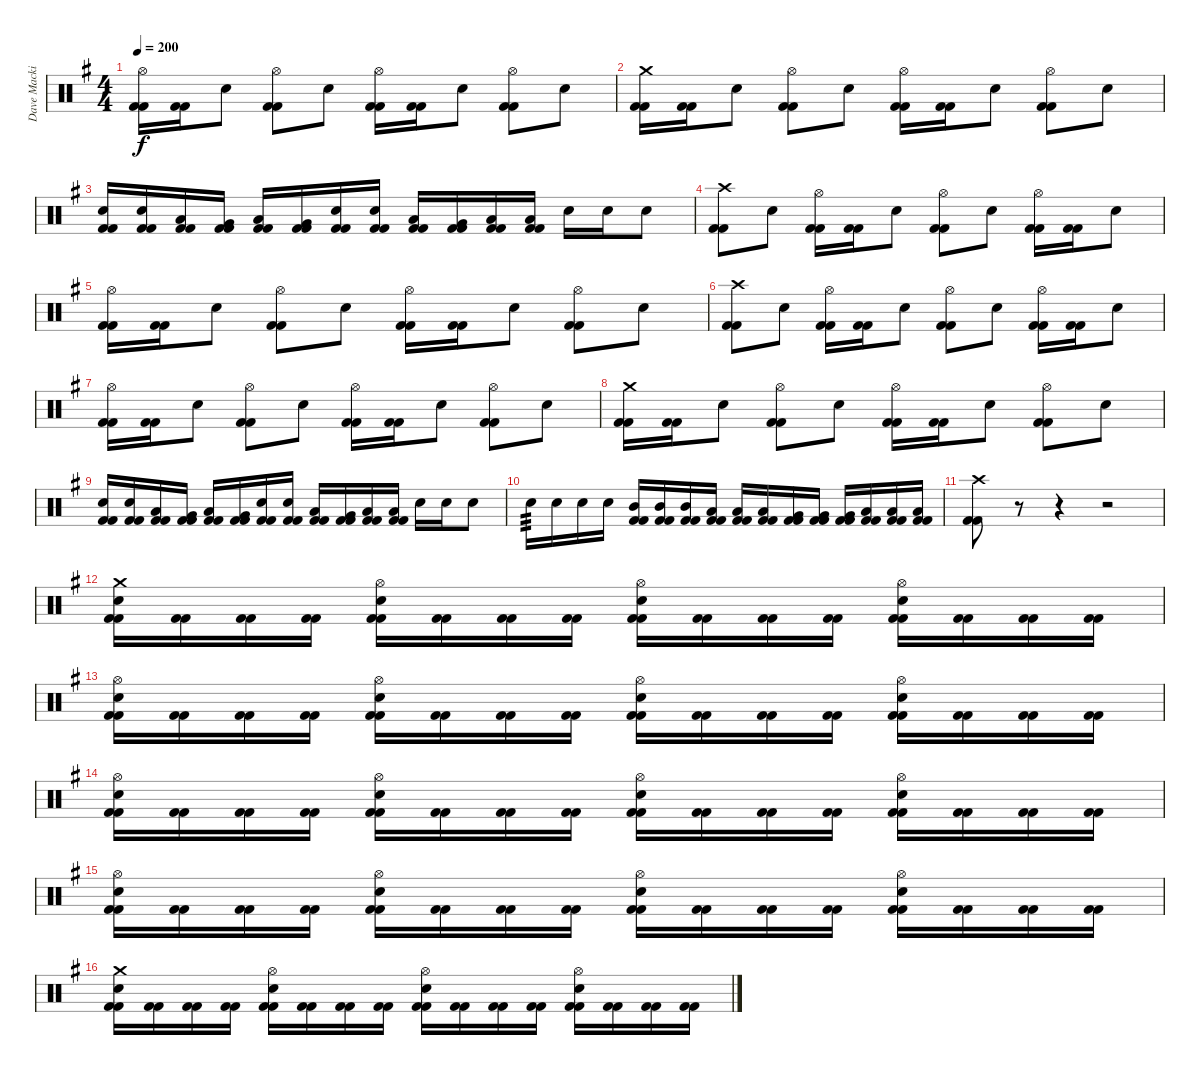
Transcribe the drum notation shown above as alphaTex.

\track ("Dave Mackintosh" "Dave Macki") {instrument percussion}
\staff {score}
\articulation defaults
\ts (4 4)
\tempo 200
\clef neutral
\ks g
("Hi-Hat (open)" "Kick (hit) 2" "Kick (hit) 2").16{dy f} ("Kick (hit) 2" "Kick (hit) 2").16 "Electric Snare (hit)".8 ("Hi-Hat (open)" "Kick (hit) 2" "Kick (hit) 2").8 "Electric Snare (hit)".8 ("Hi-Hat (open)" "Kick (hit) 2" "Kick (hit) 2").16 ("Kick (hit) 2" "Kick (hit) 2").16 "Electric Snare (hit)".8 ("Hi-Hat (open)" "Kick (hit) 2" "Kick (hit) 2").8 "Electric Snare (hit)".8 |
("Crash medium (hit)" "Kick (hit) 2" "Kick (hit) 2").16 ("Kick (hit) 2" "Kick (hit) 2").16 "Electric Snare (hit)".8 ("Hi-Hat (open)" "Kick (hit) 2" "Kick (hit) 2").8 "Electric Snare (hit)".8 ("Hi-Hat (open)" "Kick (hit) 2" "Kick (hit) 2").16 ("Kick (hit) 2" "Kick (hit) 2").16 "Electric Snare (hit)".8 ("Hi-Hat (open)" "Kick (hit) 2" "Kick (hit) 2").8 "Electric Snare (hit)".8 |
("Electric Snare (hit)" "Kick (hit) 2" "Kick (hit) 2").16 ("Electric Snare (hit)" "Kick (hit) 2" "Kick (hit) 2").16 ("Low Tom (hit)" "Kick (hit) 2" "Kick (hit) 2").16 ("Very Low Tom (hit)" "Kick (hit) 2" "Kick (hit) 2").16 ("Low Tom (hit)" "Kick (hit) 2" "Kick (hit) 2").16 ("Very Low Tom (hit)" "Kick (hit) 2" "Kick (hit) 2").16 ("Electric Snare (hit)" "Kick (hit) 2" "Kick (hit) 2").16 ("Electric Snare (hit)" "Kick (hit) 2" "Kick (hit) 2").16 ("Low Tom (hit)" "Kick (hit) 2" "Kick (hit) 2").16 ("Very Low Tom (hit)" "Kick (hit) 2" "Kick (hit) 2").16 ("Low Floor Tom (hit)" "Kick (hit) 2" "Kick (hit) 2").16 ("Low Floor Tom (hit)" "Kick (hit) 2" "Kick (hit) 2").16 "Electric Snare (hit)".16 "Electric Snare (hit)".16 "Electric Snare (hit)".8 |
("Crash high (hit)" "Kick (hit) 2" "Kick (hit) 2").8 "Electric Snare (hit)".8 ("Hi-Hat (open)" "Kick (hit) 2" "Kick (hit) 2").16 ("Kick (hit) 2" "Kick (hit) 2").16 "Electric Snare (hit)".8 ("Hi-Hat (open)" "Kick (hit) 2" "Kick (hit) 2").8 "Electric Snare (hit)".8 ("Hi-Hat (open)" "Kick (hit) 2" "Kick (hit) 2").16 ("Kick (hit) 2" "Kick (hit) 2").16 "Electric Snare (hit)".8 |
("Hi-Hat (open)" "Kick (hit) 2" "Kick (hit) 2").16 ("Kick (hit) 2" "Kick (hit) 2").16 "Electric Snare (hit)".8 ("Hi-Hat (open)" "Kick (hit) 2" "Kick (hit) 2").8 "Electric Snare (hit)".8 ("Hi-Hat (open)" "Kick (hit) 2" "Kick (hit) 2").16 ("Kick (hit) 2" "Kick (hit) 2").16 "Electric Snare (hit)".8 ("Hi-Hat (open)" "Kick (hit) 2" "Kick (hit) 2").8 "Electric Snare (hit)".8 |
("Crash high (hit)" "Kick (hit) 2" "Kick (hit) 2").8 "Electric Snare (hit)".8 ("Hi-Hat (open)" "Kick (hit) 2" "Kick (hit) 2").16 ("Kick (hit) 2" "Kick (hit) 2").16 "Electric Snare (hit)".8 ("Hi-Hat (open)" "Kick (hit) 2" "Kick (hit) 2").8 "Electric Snare (hit)".8 ("Hi-Hat (open)" "Kick (hit) 2" "Kick (hit) 2").16 ("Kick (hit) 2" "Kick (hit) 2").16 "Electric Snare (hit)".8 |
("Hi-Hat (open)" "Kick (hit) 2" "Kick (hit) 2").16 ("Kick (hit) 2" "Kick (hit) 2").16 "Electric Snare (hit)".8 ("Hi-Hat (open)" "Kick (hit) 2" "Kick (hit) 2").8 "Electric Snare (hit)".8 ("Hi-Hat (open)" "Kick (hit) 2" "Kick (hit) 2").16 ("Kick (hit) 2" "Kick (hit) 2").16 "Electric Snare (hit)".8 ("Hi-Hat (open)" "Kick (hit) 2" "Kick (hit) 2").8 "Electric Snare (hit)".8 |
("Crash medium (hit)" "Kick (hit) 2" "Kick (hit) 2").16 ("Kick (hit) 2" "Kick (hit) 2").16 "Electric Snare (hit)".8 ("Hi-Hat (open)" "Kick (hit) 2" "Kick (hit) 2").8 "Electric Snare (hit)".8 ("Hi-Hat (open)" "Kick (hit) 2" "Kick (hit) 2").16 ("Kick (hit) 2" "Kick (hit) 2").16 "Electric Snare (hit)".8 ("Hi-Hat (open)" "Kick (hit) 2" "Kick (hit) 2").8 "Electric Snare (hit)".8 |
("Electric Snare (hit)" "Kick (hit) 2" "Kick (hit) 2").16 ("Electric Snare (hit)" "Kick (hit) 2" "Kick (hit) 2").16 ("Low Tom (hit)" "Kick (hit) 2" "Kick (hit) 2").16 ("Very Low Tom (hit)" "Kick (hit) 2" "Kick (hit) 2").16 ("Low Tom (hit)" "Kick (hit) 2" "Kick (hit) 2").16 ("Very Low Tom (hit)" "Kick (hit) 2" "Kick (hit) 2").16 ("Electric Snare (hit)" "Kick (hit) 2" "Kick (hit) 2").16 ("Electric Snare (hit)" "Kick (hit) 2" "Kick (hit) 2").16 ("Low Tom (hit)" "Kick (hit) 2" "Kick (hit) 2").16 ("Very Low Tom (hit)" "Kick (hit) 2" "Kick (hit) 2").16 ("Low Floor Tom (hit)" "Kick (hit) 2" "Kick (hit) 2").16 ("Low Floor Tom (hit)" "Kick (hit) 2" "Kick (hit) 2").16 "Electric Snare (hit)".16 "Electric Snare (hit)".16 "Electric Snare (hit)".8 |
"Electric Snare (hit)".16{tp 3} "Electric Snare (hit)".16 "Electric Snare (hit)".16 "Electric Snare (hit)".16 ("Mid Tom (hit)" "Kick (hit) 2" "Kick (hit) 2").16 ("Mid Tom (hit)" "Kick (hit) 2" "Kick (hit) 2").16 ("Mid Tom (hit)" "Kick (hit) 2" "Kick (hit) 2").16 ("Low Tom (hit)" "Kick (hit) 2" "Kick (hit) 2").16 ("Low Tom (hit)" "Kick (hit) 2" "Kick (hit) 2").16 ("Low Tom (hit)" "Kick (hit) 2" "Kick (hit) 2").16 ("Very Low Tom (hit)" "Kick (hit) 2" "Kick (hit) 2").16 ("Very Low Tom (hit)" "Kick (hit) 2" "Kick (hit) 2").16 ("Very Low Tom (hit)" "Kick (hit) 2" "Kick (hit) 2").16 ("Low Floor Tom (hit)" "Kick (hit) 2" "Kick (hit) 2").16 ("Low Floor Tom (hit)" "Kick (hit) 2" "Kick (hit) 2").16 ("Low Floor Tom (hit)" "Kick (hit) 2" "Kick (hit) 2").16 |
("Crash high (hit)" "Kick (hit) 2" "Kick (hit) 2").8 r.8{volume 0} r.4 r.2 |
("Crash medium (hit)" "Electric Snare (hit)" "Kick (hit) 2" "Kick (hit) 2").16{volume 16} ("Kick (hit) 2" "Kick (hit) 2").16 ("Kick (hit) 2" "Kick (hit) 2").16 ("Kick (hit) 2" "Kick (hit) 2").16 ("Hi-Hat (open)" "Electric Snare (hit)" "Kick (hit) 2" "Kick (hit) 2").16 ("Kick (hit) 2" "Kick (hit) 2").16 ("Kick (hit) 2" "Kick (hit) 2").16 ("Kick (hit) 2" "Kick (hit) 2").16 ("Hi-Hat (open)" "Electric Snare (hit)" "Kick (hit) 2" "Kick (hit) 2").16 ("Kick (hit) 2" "Kick (hit) 2").16 ("Kick (hit) 2" "Kick (hit) 2").16 ("Kick (hit) 2" "Kick (hit) 2").16 ("Hi-Hat (open)" "Electric Snare (hit)" "Kick (hit) 2" "Kick (hit) 2").16 ("Kick (hit) 2" "Kick (hit) 2").16 ("Kick (hit) 2" "Kick (hit) 2").16 ("Kick (hit) 2" "Kick (hit) 2").16 |
("Hi-Hat (open)" "Electric Snare (hit)" "Kick (hit) 2" "Kick (hit) 2").16 ("Kick (hit) 2" "Kick (hit) 2").16 ("Kick (hit) 2" "Kick (hit) 2").16 ("Kick (hit) 2" "Kick (hit) 2").16 ("Hi-Hat (open)" "Electric Snare (hit)" "Kick (hit) 2" "Kick (hit) 2").16 ("Kick (hit) 2" "Kick (hit) 2").16 ("Kick (hit) 2" "Kick (hit) 2").16 ("Kick (hit) 2" "Kick (hit) 2").16 ("Hi-Hat (open)" "Electric Snare (hit)" "Kick (hit) 2" "Kick (hit) 2").16 ("Kick (hit) 2" "Kick (hit) 2").16 ("Kick (hit) 2" "Kick (hit) 2").16 ("Kick (hit) 2" "Kick (hit) 2").16 ("Hi-Hat (open)" "Electric Snare (hit)" "Kick (hit) 2" "Kick (hit) 2").16 ("Kick (hit) 2" "Kick (hit) 2").16 ("Kick (hit) 2" "Kick (hit) 2").16 ("Kick (hit) 2" "Kick (hit) 2").16 |
("Hi-Hat (open)" "Electric Snare (hit)" "Kick (hit) 2" "Kick (hit) 2").16 ("Kick (hit) 2" "Kick (hit) 2").16 ("Kick (hit) 2" "Kick (hit) 2").16 ("Kick (hit) 2" "Kick (hit) 2").16 ("Hi-Hat (open)" "Electric Snare (hit)" "Kick (hit) 2" "Kick (hit) 2").16 ("Kick (hit) 2" "Kick (hit) 2").16 ("Kick (hit) 2" "Kick (hit) 2").16 ("Kick (hit) 2" "Kick (hit) 2").16 ("Hi-Hat (open)" "Electric Snare (hit)" "Kick (hit) 2" "Kick (hit) 2").16 ("Kick (hit) 2" "Kick (hit) 2").16 ("Kick (hit) 2" "Kick (hit) 2").16 ("Kick (hit) 2" "Kick (hit) 2").16 ("Hi-Hat (open)" "Electric Snare (hit)" "Kick (hit) 2" "Kick (hit) 2").16 ("Kick (hit) 2" "Kick (hit) 2").16 ("Kick (hit) 2" "Kick (hit) 2").16 ("Kick (hit) 2" "Kick (hit) 2").16 |
("Hi-Hat (open)" "Electric Snare (hit)" "Kick (hit) 2" "Kick (hit) 2").16 ("Kick (hit) 2" "Kick (hit) 2").16 ("Kick (hit) 2" "Kick (hit) 2").16 ("Kick (hit) 2" "Kick (hit) 2").16 ("Hi-Hat (open)" "Electric Snare (hit)" "Kick (hit) 2" "Kick (hit) 2").16 ("Kick (hit) 2" "Kick (hit) 2").16 ("Kick (hit) 2" "Kick (hit) 2").16 ("Kick (hit) 2" "Kick (hit) 2").16 ("Hi-Hat (open)" "Electric Snare (hit)" "Kick (hit) 2" "Kick (hit) 2").16 ("Kick (hit) 2" "Kick (hit) 2").16 ("Kick (hit) 2" "Kick (hit) 2").16 ("Kick (hit) 2" "Kick (hit) 2").16 ("Hi-Hat (open)" "Electric Snare (hit)" "Kick (hit) 2" "Kick (hit) 2").16 ("Kick (hit) 2" "Kick (hit) 2").16 ("Kick (hit) 2" "Kick (hit) 2").16 ("Kick (hit) 2" "Kick (hit) 2").16 |
("Crash medium (hit)" "Electric Snare (hit)" "Kick (hit) 2" "Kick (hit) 2").16 ("Kick (hit) 2" "Kick (hit) 2").16 ("Kick (hit) 2" "Kick (hit) 2").16 ("Kick (hit) 2" "Kick (hit) 2").16 ("Hi-Hat (open)" "Electric Snare (hit)" "Kick (hit) 2" "Kick (hit) 2").16 ("Kick (hit) 2" "Kick (hit) 2").16 ("Kick (hit) 2" "Kick (hit) 2").16 ("Kick (hit) 2" "Kick (hit) 2").16 ("Hi-Hat (open)" "Electric Snare (hit)" "Kick (hit) 2" "Kick (hit) 2").16 ("Kick (hit) 2" "Kick (hit) 2").16 ("Kick (hit) 2" "Kick (hit) 2").16 ("Kick (hit) 2" "Kick (hit) 2").16 ("Hi-Hat (open)" "Electric Snare (hit)" "Kick (hit) 2" "Kick (hit) 2").16 ("Kick (hit) 2" "Kick (hit) 2").16 ("Kick (hit) 2" "Kick (hit) 2").16 ("Kick (hit) 2" "Kick (hit) 2").16
